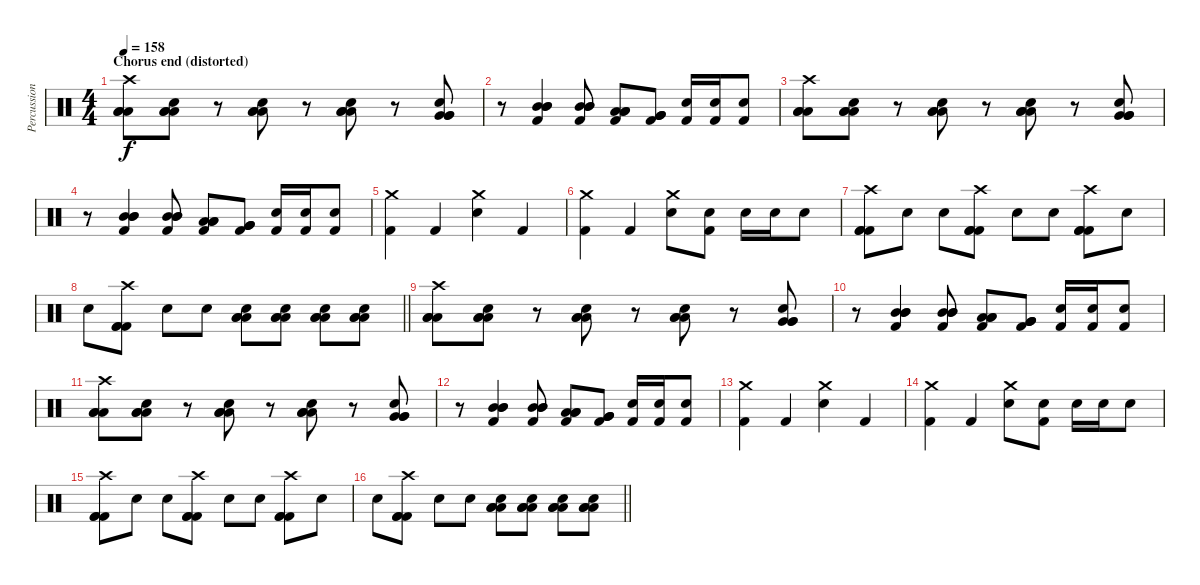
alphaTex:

\track ("Percussion" "Percussion") {instrument percussion}
\staff {score}
\articulation defaults
\ts (4 4)
\section ("" "Chorus end (distorted)")
\tempo 158
\clef neutral
\ks c
("Low Floor Tom (hit)" "Low Floor Tom (hit)" "Low Floor Tom (hit)" "Crash high (hit)").8{dy f} ("Low Floor Tom (hit)" "Low Floor Tom (hit)" "Low Floor Tom (hit)" "Electric Snare (hit)").8 r.8 ("Low Floor Tom (hit)" "Low Floor Tom (hit)" "Low Floor Tom (hit)" "Electric Snare (hit)").8 r.8 ("Low Floor Tom (hit)" "Low Floor Tom (hit)" "Low Floor Tom (hit)" "Electric Snare (hit)").8 r.8 ("Very Low Tom (hit)" "Very Low Tom (hit)" "Very Low Tom (hit)" "Electric Snare (hit)").8 |
r.8 ("Mid Tom (hit)" "Mid Tom (hit)" "Mid Tom (hit)" "Kick (hit) 2").4 ("Mid Tom (hit)" "Mid Tom (hit)" "Mid Tom (hit)" "Kick (hit) 2").8 ("Low Floor Tom (hit)" "Low Floor Tom (hit)" "Low Floor Tom (hit)" "Kick (hit) 2").8 ("Very Low Tom (hit)" "Very Low Tom (hit)" "Very Low Tom (hit)" "Kick (hit) 2").8 ("Electric Snare (hit)" "Kick (hit) 2").16 ("Electric Snare (hit)" "Kick (hit) 2").16 ("Electric Snare (hit)" "Kick (hit) 2").8 |
("Low Floor Tom (hit)" "Low Floor Tom (hit)" "Low Floor Tom (hit)" "Crash high (hit)").8 ("Low Floor Tom (hit)" "Low Floor Tom (hit)" "Low Floor Tom (hit)" "Electric Snare (hit)").8 r.8 ("Low Floor Tom (hit)" "Low Floor Tom (hit)" "Low Floor Tom (hit)" "Electric Snare (hit)").8 r.8 ("Low Floor Tom (hit)" "Low Floor Tom (hit)" "Low Floor Tom (hit)" "Electric Snare (hit)").8 r.8 ("Very Low Tom (hit)" "Very Low Tom (hit)" "Very Low Tom (hit)" "Electric Snare (hit)").8 |
r.8 ("Mid Tom (hit)" "Mid Tom (hit)" "Mid Tom (hit)" "Kick (hit) 2").4 ("Mid Tom (hit)" "Mid Tom (hit)" "Mid Tom (hit)" "Kick (hit) 2").8 ("Low Floor Tom (hit)" "Low Floor Tom (hit)" "Low Floor Tom (hit)" "Kick (hit) 2").8 ("Very Low Tom (hit)" "Very Low Tom (hit)" "Very Low Tom (hit)" "Kick (hit) 2").8 ("Electric Snare (hit)" "Kick (hit) 2").16 ("Electric Snare (hit)" "Kick (hit) 2").16 ("Electric Snare (hit)" "Kick (hit) 2").8 |
("Crash medium (hit)" "Kick (hit) 2").4 "Kick (hit) 2".4 ("Crash medium (hit)" "Electric Snare (hit)").4 "Kick (hit) 2".4 |
("Crash medium (hit)" "Kick (hit) 2").4 "Kick (hit) 2".4 ("Crash medium (hit)" "Electric Snare (hit)").8 ("Electric Snare (hit)" "Kick (hit) 2").8 "Electric Snare (hit)".16 "Electric Snare (hit)".16 "Electric Snare (hit)".8 |
("Crash high (hit)" "Kick (hit) 2" "Kick (hit) 2" "Kick (hit) 2").8 "Electric Snare (hit)".8 "Electric Snare (hit)".8 ("Crash high (hit)" "Kick (hit) 2" "Kick (hit) 2" "Kick (hit) 2").8 "Electric Snare (hit)".8 "Electric Snare (hit)".8 ("Crash high (hit)" "Kick (hit) 2" "Kick (hit) 2" "Kick (hit) 2").8 "Electric Snare (hit)".8 |
\barLineRight lightlight "Electric Snare (hit)".8
("Crash high (hit)" "Kick (hit) 2" "Kick (hit) 2" "Kick (hit) 2").8 "Electric Snare (hit)".8 "Electric Snare (hit)".8 ("Low Floor Tom (hit)" "Low Floor Tom (hit)" "Low Floor Tom (hit)" "Electric Snare (hit)").8 ("Low Floor Tom (hit)" "Low Floor Tom (hit)" "Low Floor Tom (hit)" "Electric Snare (hit)").8 ("Low Floor Tom (hit)" "Low Floor Tom (hit)" "Low Floor Tom (hit)" "Electric Snare (hit)").8 ("Low Floor Tom (hit)" "Low Floor Tom (hit)" "Low Floor Tom (hit)" "Electric Snare (hit)").8 |
("Low Floor Tom (hit)" "Low Floor Tom (hit)" "Low Floor Tom (hit)" "Crash high (hit)").8 ("Low Floor Tom (hit)" "Low Floor Tom (hit)" "Low Floor Tom (hit)" "Electric Snare (hit)").8 r.8 ("Low Floor Tom (hit)" "Low Floor Tom (hit)" "Low Floor Tom (hit)" "Electric Snare (hit)").8 r.8 ("Low Floor Tom (hit)" "Low Floor Tom (hit)" "Low Floor Tom (hit)" "Electric Snare (hit)").8 r.8 ("Very Low Tom (hit)" "Very Low Tom (hit)" "Very Low Tom (hit)" "Electric Snare (hit)").8 |
r.8 ("Mid Tom (hit)" "Mid Tom (hit)" "Mid Tom (hit)" "Kick (hit) 2").4 ("Mid Tom (hit)" "Mid Tom (hit)" "Mid Tom (hit)" "Kick (hit) 2").8 ("Low Floor Tom (hit)" "Low Floor Tom (hit)" "Low Floor Tom (hit)" "Kick (hit) 2").8 ("Very Low Tom (hit)" "Very Low Tom (hit)" "Very Low Tom (hit)" "Kick (hit) 2").8 ("Electric Snare (hit)" "Kick (hit) 2").16 ("Electric Snare (hit)" "Kick (hit) 2").16 ("Electric Snare (hit)" "Kick (hit) 2").8 |
("Low Floor Tom (hit)" "Low Floor Tom (hit)" "Low Floor Tom (hit)" "Crash high (hit)").8 ("Low Floor Tom (hit)" "Low Floor Tom (hit)" "Low Floor Tom (hit)" "Electric Snare (hit)").8 r.8 ("Low Floor Tom (hit)" "Low Floor Tom (hit)" "Low Floor Tom (hit)" "Electric Snare (hit)").8 r.8 ("Low Floor Tom (hit)" "Low Floor Tom (hit)" "Low Floor Tom (hit)" "Electric Snare (hit)").8 r.8 ("Very Low Tom (hit)" "Very Low Tom (hit)" "Very Low Tom (hit)" "Electric Snare (hit)").8 |
r.8 ("Mid Tom (hit)" "Mid Tom (hit)" "Mid Tom (hit)" "Kick (hit) 2").4 ("Mid Tom (hit)" "Mid Tom (hit)" "Mid Tom (hit)" "Kick (hit) 2").8 ("Low Floor Tom (hit)" "Low Floor Tom (hit)" "Low Floor Tom (hit)" "Kick (hit) 2").8 ("Very Low Tom (hit)" "Very Low Tom (hit)" "Very Low Tom (hit)" "Kick (hit) 2").8 ("Electric Snare (hit)" "Kick (hit) 2").16 ("Electric Snare (hit)" "Kick (hit) 2").16 ("Electric Snare (hit)" "Kick (hit) 2").8 |
("Crash medium (hit)" "Kick (hit) 2").4 "Kick (hit) 2".4 ("Crash medium (hit)" "Electric Snare (hit)").4 "Kick (hit) 2".4 |
("Crash medium (hit)" "Kick (hit) 2").4 "Kick (hit) 2".4 ("Crash medium (hit)" "Electric Snare (hit)").8 ("Electric Snare (hit)" "Kick (hit) 2").8 "Electric Snare (hit)".16 "Electric Snare (hit)".16 "Electric Snare (hit)".8 |
("Crash high (hit)" "Kick (hit) 2" "Kick (hit) 2" "Kick (hit) 2").8 "Electric Snare (hit)".8 "Electric Snare (hit)".8 ("Crash high (hit)" "Kick (hit) 2" "Kick (hit) 2" "Kick (hit) 2").8 "Electric Snare (hit)".8 "Electric Snare (hit)".8 ("Crash high (hit)" "Kick (hit) 2" "Kick (hit) 2" "Kick (hit) 2").8 "Electric Snare (hit)".8 |
\barLineRight lightlight "Electric Snare (hit)".8
("Crash high (hit)" "Kick (hit) 2" "Kick (hit) 2" "Kick (hit) 2").8 "Electric Snare (hit)".8 "Electric Snare (hit)".8 ("Low Floor Tom (hit)" "Low Floor Tom (hit)" "Low Floor Tom (hit)" "Electric Snare (hit)").8 ("Low Floor Tom (hit)" "Low Floor Tom (hit)" "Low Floor Tom (hit)" "Electric Snare (hit)").8 ("Low Floor Tom (hit)" "Low Floor Tom (hit)" "Low Floor Tom (hit)" "Electric Snare (hit)").8 ("Low Floor Tom (hit)" "Low Floor Tom (hit)" "Low Floor Tom (hit)" "Electric Snare (hit)").8
